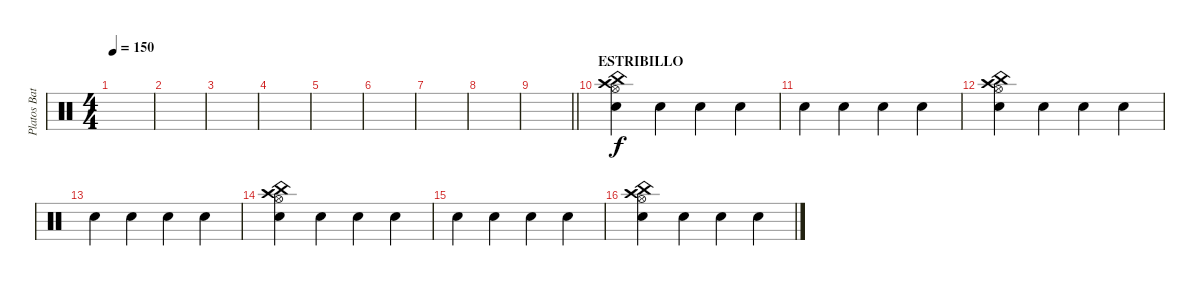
\track ("Platos Batería" "Platos Bat") {instrument percussion}
\staff {score}
\articulation defaults
\ts (4 4)
\tempo 150
\clef neutral
\ks c
|
|
|
|
|
|
|
|
\barLineRight lightlight
|
\section ("" "ESTRIBILLO")
("Crash high (hit)" "China (hit)" "Hi-Hat (open)" "Hand Clap (hit)").4 "Hand Clap (hit)".4 "Hand Clap (hit)".4 "Hand Clap (hit)".4 |
"Hand Clap (hit)".4 "Hand Clap (hit)".4 "Hand Clap (hit)".4 "Hand Clap (hit)".4 |
("Crash high (hit)" "China (hit)" "Hi-Hat (open)" "Hand Clap (hit)").4 "Hand Clap (hit)".4 "Hand Clap (hit)".4 "Hand Clap (hit)".4 |
"Hand Clap (hit)".4 "Hand Clap (hit)".4 "Hand Clap (hit)".4 "Hand Clap (hit)".4 |
("Crash high (hit)" "China (hit)" "Hi-Hat (open)" "Hand Clap (hit)").4 "Hand Clap (hit)".4 "Hand Clap (hit)".4 "Hand Clap (hit)".4 |
"Hand Clap (hit)".4 "Hand Clap (hit)".4 "Hand Clap (hit)".4 "Hand Clap (hit)".4 |
("Crash high (hit)" "China (hit)" "Hi-Hat (open)" "Hand Clap (hit)").4 "Hand Clap (hit)".4 "Hand Clap (hit)".4 "Hand Clap (hit)".4
